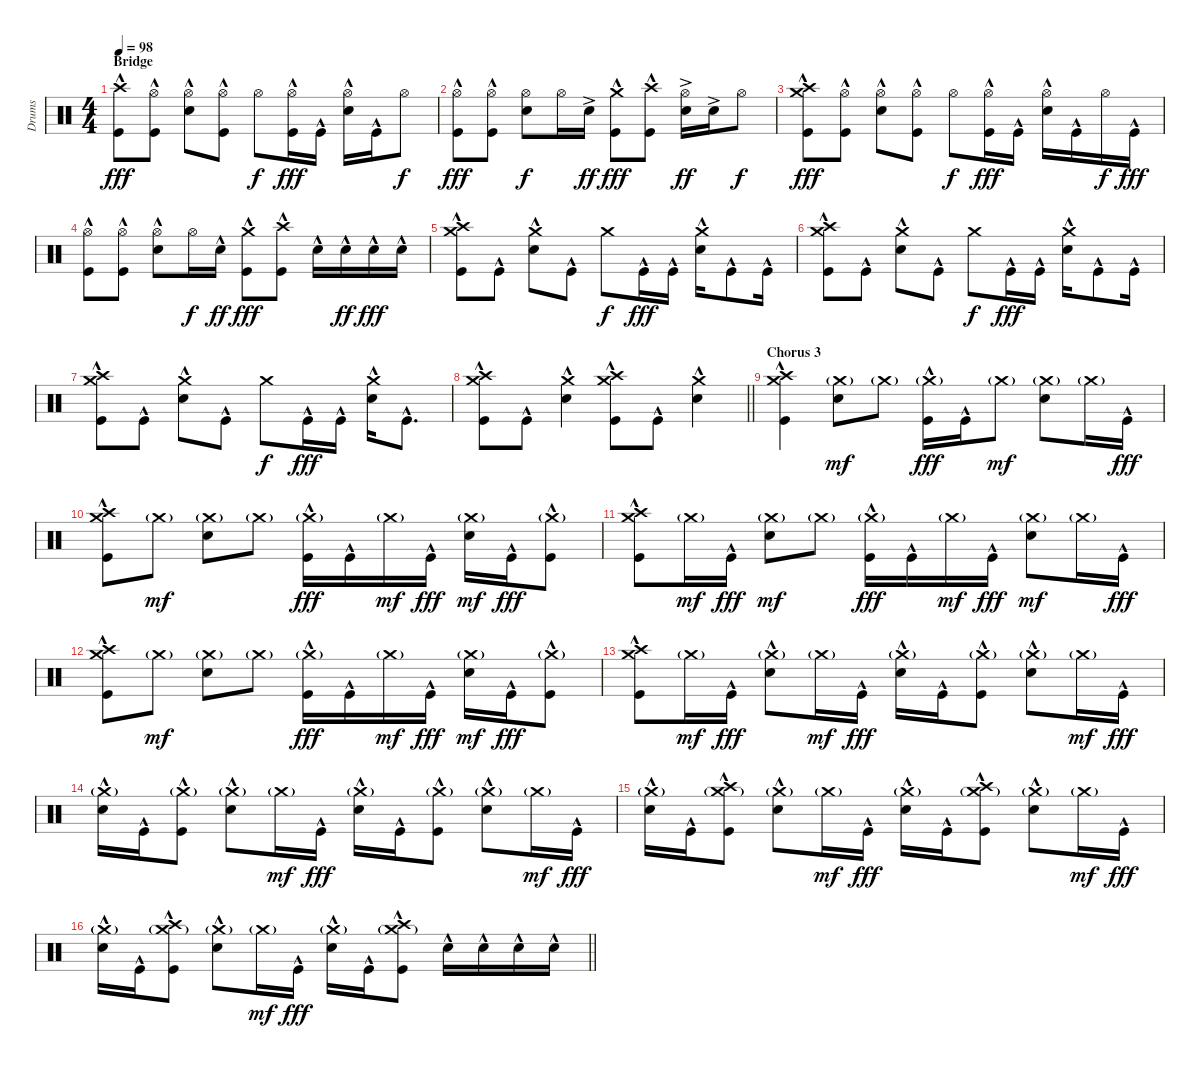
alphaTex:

\track ("Drums" "Drums") {instrument percussion}
\staff {score}
\articulation defaults
\ts (4 4)
\section ("" "Bridge")
\tempo 98
\clef neutral
\ks c
("Crash high (hit)" "Kick (hit)"{hac}).8{dy fff} ("Hi-Hat (open)" "Kick (hit)"{hac}).8 ("Hi-Hat (open)" "Snare (hit) 2"{hac}).8 ("Hi-Hat (open)" "Kick (hit)"{hac}).8 "Hi-Hat (open)".8{dy f} ("Hi-Hat (open)" "Kick (hit)"{hac}).16{dy fff} "Kick (hit)"{hac}.16 ("Hi-Hat (open)" "Snare (hit) 2"{hac}).16 "Kick (hit)"{hac}.16 "Hi-Hat (open)".8{dy f} |
("Hi-Hat (open)" "Kick (hit)"{hac}).8{dy fff} ("Hi-Hat (open)" "Kick (hit)"{hac}).8 ("Hi-Hat (open)" "Snare (hit) 2").8{dy f} "Hi-Hat (open)".16 "Snare (hit) 2"{ac}.16{dy ff} ("Crash medium (hit)" "Kick (hit)"{hac}).8{dy fff} ("Crash high (hit)" "Kick (hit)"{hac}).8 ("Hi-Hat (open)" "Snare (hit) 2"{ac}).16{dy ff} "Snare (hit) 2"{ac}.16 "Hi-Hat (open)".8{dy f} |
("Crash medium (hit)" "Crash high (hit)" "Kick (hit)"{hac}).8{dy fff} ("Hi-Hat (open)" "Kick (hit)"{hac}).8 ("Hi-Hat (open)" "Snare (hit) 2"{hac}).8 ("Hi-Hat (open)" "Kick (hit)"{hac}).8 "Hi-Hat (open)".8{dy f} ("Hi-Hat (open)" "Kick (hit)"{hac}).16{dy fff} "Kick (hit)"{hac}.16 ("Hi-Hat (open)" "Snare (hit) 2"{hac}).16 "Kick (hit)"{hac}.16 "Hi-Hat (open)".16{dy f} "Kick (hit)"{hac}.16{dy fff} |
("Hi-Hat (open)" "Kick (hit)"{hac}).8 ("Hi-Hat (open)" "Kick (hit)"{hac}).8 ("Hi-Hat (open)" "Snare (hit) 2"{hac}).8 "Hi-Hat (open)".16{dy f} "Snare (hit) 2"{hac}.16{dy ff} ("Crash medium (hit)" "Kick (hit)"{hac}).8{dy fff} ("Crash high (hit)" "Kick (hit)"{hac}).8 "Snare (hit) 2"{hac}.16 "Snare (hit) 2"{hac}.16{dy ff} "Snare (hit) 2"{hac}.16{dy fff} "Snare (hit) 2"{hac}.16 |
("Crash medium (hit)" "Crash high (hit)" "Kick (hit)"{hac}).8 "Kick (hit)"{hac}.8 ("Crash medium (hit)" "Snare (hit) 2"{hac}).8 "Kick (hit)"{hac}.8 "Crash medium (hit)".8{dy f} "Kick (hit)"{hac}.16{dy fff} "Kick (hit)"{hac}.16 ("Crash medium (hit)" "Snare (hit) 2"{hac}).16 "Kick (hit)"{hac}.8 "Kick (hit)"{hac}.16 |
("Crash medium (hit)" "Crash high (hit)" "Kick (hit)"{hac}).8 "Kick (hit)"{hac}.8 ("Crash medium (hit)" "Snare (hit) 2"{hac}).8 "Kick (hit)"{hac}.8 "Crash medium (hit)".8{dy f} "Kick (hit)"{hac}.16{dy fff} "Kick (hit)"{hac}.16 ("Crash medium (hit)" "Snare (hit) 2"{hac}).16 "Kick (hit)"{hac}.8 "Kick (hit)"{hac}.16 |
("Crash medium (hit)" "Crash high (hit)" "Kick (hit)"{hac}).8 "Kick (hit)"{hac}.8 ("Crash medium (hit)" "Snare (hit) 2"{hac}).8 "Kick (hit)"{hac}.8 "Crash medium (hit)".8{dy f} "Kick (hit)"{hac}.16{dy fff} "Kick (hit)"{hac}.16 ("Crash medium (hit)" "Snare (hit) 2"{hac}).16 "Kick (hit)"{hac}.8{d} |
\barLineRight lightlight
("Crash medium (hit)" "Crash high (hit)" "Kick (hit)"{hac}).8 "Kick (hit)"{hac}.8 ("Crash medium (hit)" "Snare (hit) 2"{hac}).4 ("Crash medium (hit)" "Crash high (hit)" "Kick (hit)"{hac}).8 "Kick (hit)"{hac}.8 ("Crash medium (hit)" "Snare (hit) 2"{hac}).4 |
\section ("" "Chorus 3")
("Crash medium (hit)" "Crash high (hit)" "Kick (hit)"{hac}).4 ("Crash medium (hit)"{g} "Snare (hit) 2").8{dy mf} "Crash medium (hit)"{g}.8 ("Crash medium (hit)"{g} "Kick (hit)"{hac}).16{dy fff} "Kick (hit)"{hac}.16 "Crash medium (hit)"{g}.8{dy mf} ("Crash medium (hit)"{g} "Snare (hit) 2").8 "Crash medium (hit)"{g}.16 "Kick (hit)"{hac}.16{dy fff} |
("Crash medium (hit)" "Crash high (hit)" "Kick (hit)"{hac}).8 "Crash medium (hit)"{g}.8{dy mf} ("Crash medium (hit)"{g} "Snare (hit) 2").8 "Crash medium (hit)"{g}.8 ("Crash medium (hit)"{g} "Kick (hit)"{hac}).16{dy fff} "Kick (hit)"{hac}.16 "Crash medium (hit)"{g}.16{dy mf} "Kick (hit)"{hac}.16{dy fff} ("Crash medium (hit)"{g} "Snare (hit) 2").16{dy mf} "Kick (hit)"{hac}.16{dy fff} ("Crash medium (hit)"{g} "Kick (hit)"{hac}).8 |
("Crash medium (hit)" "Crash high (hit)" "Kick (hit)"{hac}).8 "Crash medium (hit)"{g}.16{dy mf} "Kick (hit)"{hac}.16{dy fff} ("Crash medium (hit)"{g} "Snare (hit) 2").8{dy mf} "Crash medium (hit)"{g}.8 ("Crash medium (hit)"{g} "Kick (hit)"{hac}).16{dy fff} "Kick (hit)"{hac}.16 "Crash medium (hit)"{g}.16{dy mf} "Kick (hit)"{hac}.16{dy fff} ("Crash medium (hit)"{g} "Snare (hit) 2").8{dy mf} "Crash medium (hit)"{g}.16 "Kick (hit)"{hac}.16{dy fff} |
("Crash medium (hit)" "Crash high (hit)" "Kick (hit)"{hac}).8 "Crash medium (hit)"{g}.8{dy mf} ("Crash medium (hit)"{g} "Snare (hit) 2").8 "Crash medium (hit)"{g}.8 ("Crash medium (hit)"{g} "Kick (hit)"{hac}).16{dy fff} "Kick (hit)"{hac}.16 "Crash medium (hit)"{g}.16{dy mf} "Kick (hit)"{hac}.16{dy fff} ("Crash medium (hit)"{g} "Snare (hit) 2").16{dy mf} "Kick (hit)"{hac}.16{dy fff} ("Crash medium (hit)"{g} "Kick (hit)"{hac}).8 |
("Crash medium (hit)" "Crash high (hit)" "Kick (hit)"{hac}).8 "Crash medium (hit)"{g}.16{dy mf} "Kick (hit)"{hac}.16{dy fff} ("Crash medium (hit)"{g} "Snare (hit) 2"{hac}).8 "Crash medium (hit)"{g}.16{dy mf} "Kick (hit)"{hac}.16{dy fff} ("Crash medium (hit)"{g} "Snare (hit) 2"{hac}).16 "Kick (hit)"{hac}.16 ("Crash medium (hit)"{g} "Kick (hit)"{hac}).8 ("Crash medium (hit)"{g} "Snare (hit) 2"{hac}).8 "Crash medium (hit)"{g}.16{dy mf} "Kick (hit)"{hac}.16{dy fff} |
("Crash medium (hit)"{g} "Snare (hit) 2"{hac}).16 "Kick (hit)"{hac}.16 ("Crash medium (hit)"{g} "Kick (hit)"{hac}).8 ("Crash medium (hit)"{g} "Snare (hit) 2"{hac}).8 "Crash medium (hit)"{g}.16{dy mf} "Kick (hit)"{hac}.16{dy fff} ("Crash medium (hit)"{g} "Snare (hit) 2"{hac}).16 "Kick (hit)"{hac}.16 ("Crash medium (hit)"{g} "Kick (hit)"{hac}).8 ("Crash medium (hit)"{g} "Snare (hit) 2"{hac}).8 "Crash medium (hit)"{g}.16{dy mf} "Kick (hit)"{hac}.16{dy fff} |
("Crash medium (hit)"{g} "Snare (hit) 2"{hac}).16 "Kick (hit)"{hac}.16 ("Crash medium (hit)"{g} "Crash high (hit)" "Kick (hit)"{hac}).8 ("Crash medium (hit)"{g} "Snare (hit) 2"{hac}).8 "Crash medium (hit)"{g}.16{dy mf} "Kick (hit)"{hac}.16{dy fff} ("Crash medium (hit)"{g} "Snare (hit) 2"{hac}).16 "Kick (hit)"{hac}.16 ("Crash medium (hit)"{g} "Crash high (hit)" "Kick (hit)"{hac}).8 ("Crash medium (hit)"{g} "Snare (hit) 2"{hac}).8 "Crash medium (hit)"{g}.16{dy mf} "Kick (hit)"{hac}.16{dy fff} |
\barLineRight lightlight
("Crash medium (hit)"{g} "Snare (hit) 2"{hac}).16 "Kick (hit)"{hac}.16 ("Crash medium (hit)"{g} "Crash high (hit)" "Kick (hit)"{hac}).8 ("Crash medium (hit)"{g} "Snare (hit) 2"{hac}).8 "Crash medium (hit)"{g}.16{dy mf} "Kick (hit)"{hac}.16{dy fff} ("Crash medium (hit)"{g} "Snare (hit) 2"{hac}).16 "Kick (hit)"{hac}.16 ("Crash medium (hit)"{g} "Crash high (hit)" "Kick (hit)"{hac}).8 "Snare (hit) 2"{hac}.16 "Snare (hit) 2"{hac}.16 "Snare (hit) 2"{hac}.16 "Snare (hit) 2"{hac}.16
